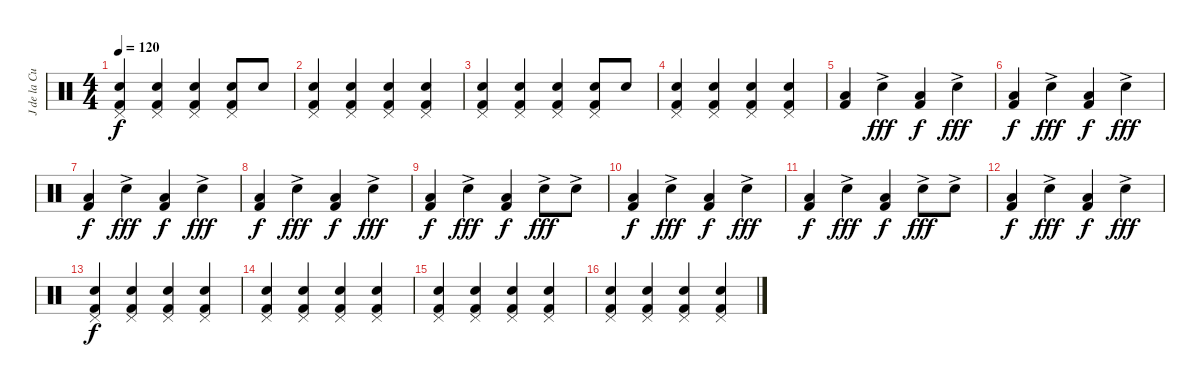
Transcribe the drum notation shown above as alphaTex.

\track ("J de la Cueva" "J de la Cu") {instrument percussion}
\staff {score}
\articulation defaults
\ts (4 4)
\tempo 120
\clef neutral
\ks c
("Snare (hit) 2" "Kick (hit) 2" "Pedal Hi-Hat (hit)").4{dy f} ("Snare (hit) 2" "Kick (hit) 2" "Pedal Hi-Hat (hit)").4 ("Snare (hit) 2" "Kick (hit) 2" "Pedal Hi-Hat (hit)").4 ("Snare (hit) 2" "Kick (hit) 2" "Pedal Hi-Hat (hit)").8 "Electric Snare (hit)".8 |
("Snare (hit) 2" "Kick (hit) 2" "Pedal Hi-Hat (hit)").4 ("Snare (hit) 2" "Kick (hit) 2" "Pedal Hi-Hat (hit)").4 ("Snare (hit) 2" "Kick (hit) 2" "Pedal Hi-Hat (hit)").4 ("Snare (hit) 2" "Kick (hit) 2" "Pedal Hi-Hat (hit)").4 |
("Snare (hit) 2" "Kick (hit) 2" "Pedal Hi-Hat (hit)").4 ("Snare (hit) 2" "Kick (hit) 2" "Pedal Hi-Hat (hit)").4 ("Snare (hit) 2" "Kick (hit) 2" "Pedal Hi-Hat (hit)").4 ("Snare (hit) 2" "Kick (hit) 2" "Pedal Hi-Hat (hit)").8 "Electric Snare (hit)".8 |
("Snare (hit) 2" "Kick (hit) 2" "Pedal Hi-Hat (hit)").4 ("Snare (hit) 2" "Kick (hit) 2" "Pedal Hi-Hat (hit)").4 ("Snare (hit) 2" "Kick (hit) 2" "Pedal Hi-Hat (hit)").4 ("Snare (hit) 2" "Kick (hit) 2" "Pedal Hi-Hat (hit)").4 |
("Low Tom (hit)" "Kick (hit) 2").4 "Snare (hit) 2"{ac}.4{dy fff} ("Low Tom (hit)" "Kick (hit) 2").4{dy f} "Snare (hit) 2"{ac}.4{dy fff} |
("Low Tom (hit)" "Kick (hit) 2").4{dy f} "Snare (hit) 2"{ac}.4{dy fff} ("Low Tom (hit)" "Kick (hit) 2").4{dy f} "Snare (hit) 2"{ac}.4{dy fff} |
("Low Tom (hit)" "Kick (hit) 2").4{dy f} "Snare (hit) 2"{ac}.4{dy fff} ("Low Tom (hit)" "Kick (hit) 2").4{dy f} "Snare (hit) 2"{ac}.4{dy fff} |
("Low Tom (hit)" "Kick (hit) 2").4{dy f} "Snare (hit) 2"{ac}.4{dy fff} ("Low Tom (hit)" "Kick (hit) 2").4{dy f} "Snare (hit) 2"{ac}.4{dy fff} |
("Low Tom (hit)" "Kick (hit) 2").4{dy f} "Snare (hit) 2"{ac}.4{dy fff} ("Low Tom (hit)" "Kick (hit) 2").4{dy f} "Snare (hit) 2"{ac}.8{dy fff} "Electric Snare (hit)"{ac}.8 |
("Low Tom (hit)" "Kick (hit) 2").4{dy f} "Snare (hit) 2"{ac}.4{dy fff} ("Low Tom (hit)" "Kick (hit) 2").4{dy f} "Snare (hit) 2"{ac}.4{dy fff} |
("Low Tom (hit)" "Kick (hit) 2").4{dy f} "Snare (hit) 2"{ac}.4{dy fff} ("Low Tom (hit)" "Kick (hit) 2").4{dy f} "Snare (hit) 2"{ac}.8{dy fff} "Electric Snare (hit)"{ac}.8 |
("Low Tom (hit)" "Kick (hit) 2").4{dy f} "Snare (hit) 2"{ac}.4{dy fff} ("Low Tom (hit)" "Kick (hit) 2").4{dy f} "Snare (hit) 2"{ac}.4{dy fff} |
("Snare (hit) 2" "Kick (hit) 2" "Pedal Hi-Hat (hit)").4{dy f} ("Snare (hit) 2" "Kick (hit) 2" "Pedal Hi-Hat (hit)").4 ("Snare (hit) 2" "Kick (hit) 2" "Pedal Hi-Hat (hit)").4 ("Snare (hit) 2" "Kick (hit) 2" "Pedal Hi-Hat (hit)").4 |
("Snare (hit) 2" "Kick (hit) 2" "Pedal Hi-Hat (hit)").4 ("Snare (hit) 2" "Kick (hit) 2" "Pedal Hi-Hat (hit)").4 ("Snare (hit) 2" "Kick (hit) 2" "Pedal Hi-Hat (hit)").4 ("Snare (hit) 2" "Kick (hit) 2" "Pedal Hi-Hat (hit)").4 |
("Snare (hit) 2" "Kick (hit) 2" "Pedal Hi-Hat (hit)").4 ("Snare (hit) 2" "Kick (hit) 2" "Pedal Hi-Hat (hit)").4 ("Snare (hit) 2" "Kick (hit) 2" "Pedal Hi-Hat (hit)").4 ("Snare (hit) 2" "Kick (hit) 2" "Pedal Hi-Hat (hit)").4 |
("Snare (hit) 2" "Kick (hit) 2" "Pedal Hi-Hat (hit)").4 ("Snare (hit) 2" "Kick (hit) 2" "Pedal Hi-Hat (hit)").4 ("Snare (hit) 2" "Kick (hit) 2" "Pedal Hi-Hat (hit)").4 ("Snare (hit) 2" "Kick (hit) 2" "Pedal Hi-Hat (hit)").4
